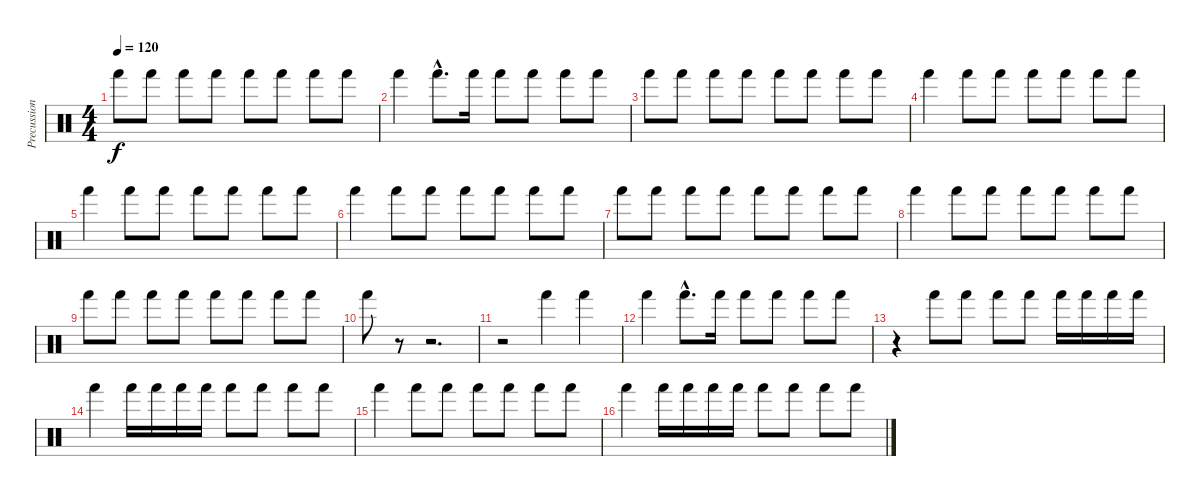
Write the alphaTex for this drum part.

\track ("Precussion" "Precussion") {instrument percussion}
\staff {score}
\articulation defaults
\ts (4 4)
\tempo 120
\clef neutral
\ks c "Hand (hit)".8{dy f} "Hand (hit)".8 "Hand (hit)".8 "Hand (hit)".8 "Hand (hit)".8 "Hand (hit)".8 "Hand (hit)".8 "Hand (hit)".8
|
"Hand (hit)".4 "Hand (hit)"{hac}.8{d} "Hand (hit)".16 "Hand (hit)".8 "Hand (hit)".8 "Hand (hit)".8 "Hand (hit)".8 |
"Hand (hit)".8 "Hand (hit)".8 "Hand (hit)".8 "Hand (hit)".8 "Hand (hit)".8 "Hand (hit)".8 "Hand (hit)".8 "Hand (hit)".8 |
"Hand (hit)".4 "Hand (hit)".8 "Hand (hit)".8 "Hand (hit)".8 "Hand (hit)".8 "Hand (hit)".8 "Hand (hit)".8 |
"Hand (hit)".4 "Hand (hit)".8 "Hand (hit)".8 "Hand (hit)".8 "Hand (hit)".8 "Hand (hit)".8 "Hand (hit)".8 |
"Hand (hit)".4 "Hand (hit)".8 "Hand (hit)".8 "Hand (hit)".8 "Hand (hit)".8 "Hand (hit)".8 "Hand (hit)".8 |
"Hand (hit)".8 "Hand (hit)".8 "Hand (hit)".8 "Hand (hit)".8 "Hand (hit)".8 "Hand (hit)".8 "Hand (hit)".8 "Hand (hit)".8 |
"Hand (hit)".4 "Hand (hit)".8 "Hand (hit)".8 "Hand (hit)".8 "Hand (hit)".8 "Hand (hit)".8 "Hand (hit)".8 |
"Hand (hit)".8 "Hand (hit)".8 "Hand (hit)".8 "Hand (hit)".8 "Hand (hit)".8 "Hand (hit)".8 "Hand (hit)".8 "Hand (hit)".8 |
"Hand (hit)".8 r.8 r.2{d} |
r.2 "Hand (hit)".4 "Hand (hit)".4 |
"Hand (hit)".4 "Hand (hit)"{hac}.8{d} "Hand (hit)".16 "Hand (hit)".8 "Hand (hit)".8 "Hand (hit)".8 "Hand (hit)".8 |
r.4 "Hand (hit)".8 "Hand (hit)".8 "Hand (hit)".8 "Hand (hit)".8 "Hand (hit)".16 "Hand (hit)".16 "Hand (hit)".16 "Hand (hit)".16 |
"Hand (hit)".4 "Hand (hit)".16 "Hand (hit)".16 "Hand (hit)".16 "Hand (hit)".16 "Hand (hit)".8 "Hand (hit)".8 "Hand (hit)".8 "Hand (hit)".8 |
"Hand (hit)".4 "Hand (hit)".8 "Hand (hit)".8 "Hand (hit)".8 "Hand (hit)".8 "Hand (hit)".8 "Hand (hit)".8 |
"Hand (hit)".4 "Hand (hit)".16 "Hand (hit)".16 "Hand (hit)".16 "Hand (hit)".16 "Hand (hit)".8 "Hand (hit)".8 "Hand (hit)".8 "Hand (hit)".8
